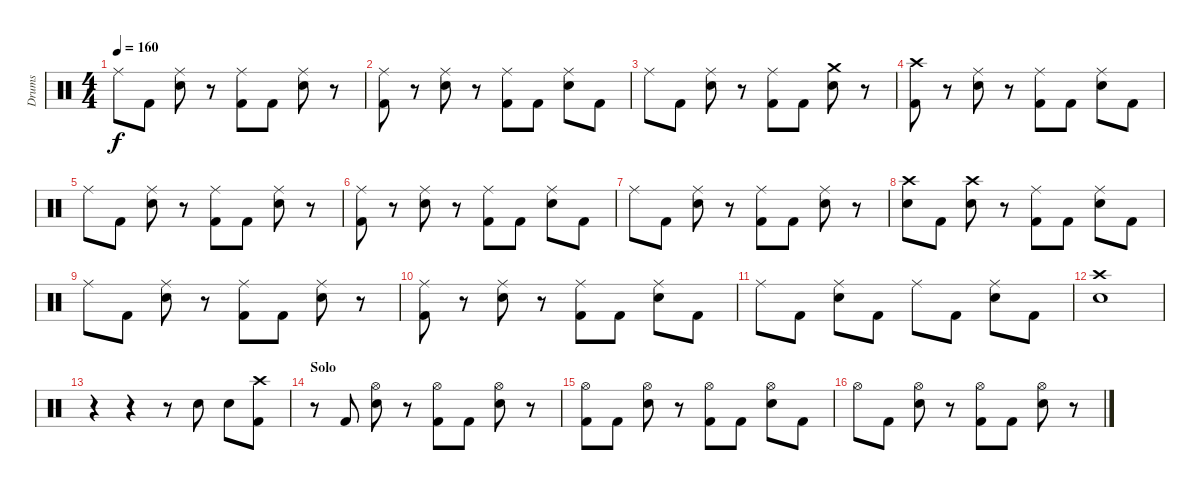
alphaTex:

\track ("Drums" "Drums") {instrument percussion}
\staff {score}
\articulation defaults
\ts (4 4)
\tempo 160
\clef neutral
\ks c "Ride (middle)".8{dy f} "Kick (hit) 2".8
("Ride (middle)" "Snare (hit) 2").8 r.8 ("Ride (middle)" "Kick (hit) 2").8 "Kick (hit) 2".8 ("Ride (middle)" "Snare (hit) 2").8 r.8 |
("Ride (middle)" "Kick (hit) 2").8 r.8 ("Ride (middle)" "Snare (hit) 2").8 r.8 ("Ride (middle)" "Kick (hit) 2").8 "Kick (hit) 2".8 ("Ride (middle)" "Snare (hit) 2").8 "Kick (hit) 2".8 |
"Ride (middle)".8 "Kick (hit) 2".8 ("Ride (middle)" "Snare (hit) 2").8 r.8 ("Ride (middle)" "Kick (hit) 2").8 "Kick (hit) 2".8 ("Crash medium (hit)" "Snare (hit) 2").8 r.8 |
("Crash high (hit)" "Kick (hit) 2").8 r.8 ("Ride (middle)" "Snare (hit) 2").8 r.8 ("Ride (middle)" "Kick (hit) 2").8 "Kick (hit) 2".8 ("Ride (middle)" "Snare (hit) 2").8 "Kick (hit) 2".8 |
"Ride (middle)".8 "Kick (hit) 2".8 ("Ride (middle)" "Snare (hit) 2").8 r.8 ("Ride (middle)" "Kick (hit) 2").8 "Kick (hit) 2".8 ("Ride (middle)" "Snare (hit) 2").8 r.8 |
("Ride (middle)" "Kick (hit) 2").8 r.8 ("Ride (middle)" "Snare (hit) 2").8 r.8 ("Ride (middle)" "Kick (hit) 2").8 "Kick (hit) 2".8 ("Ride (middle)" "Snare (hit) 2").8 "Kick (hit) 2".8 |
"Ride (middle)".8 "Kick (hit) 2".8 ("Ride (middle)" "Snare (hit) 2").8 r.8 ("Ride (middle)" "Kick (hit) 2").8 "Kick (hit) 2".8 ("Ride (middle)" "Snare (hit) 2").8 r.8 |
("Crash high (hit)" "Snare (hit) 2").8 "Kick (hit) 2".8 ("Crash high (hit)" "Snare (hit) 2").8 r.8 ("Ride (middle)" "Kick (hit) 2").8 "Kick (hit) 2".8 ("Ride (middle)" "Snare (hit) 2").8 "Kick (hit) 2".8 |
"Ride (middle)".8 "Kick (hit) 2".8 ("Ride (middle)" "Snare (hit) 2").8 r.8 ("Ride (middle)" "Kick (hit) 2").8 "Kick (hit) 2".8 ("Ride (middle)" "Snare (hit) 2").8 r.8 |
("Ride (middle)" "Kick (hit) 2").8 r.8 ("Ride (middle)" "Snare (hit) 2").8 r.8 ("Ride (middle)" "Kick (hit) 2").8 "Kick (hit) 2".8 ("Ride (middle)" "Snare (hit) 2").8 "Kick (hit) 2".8 |
"Ride (middle)".8 "Kick (hit) 2".8 ("Ride (middle)" "Snare (hit) 2").8 "Kick (hit) 2".8 "Ride (middle)".8 "Kick (hit) 2".8 ("Ride (middle)" "Snare (hit) 2").8 "Kick (hit) 2".8 |
("Crash high (hit)" "Snare (hit) 2").1 |
r.4 r.4 r.8 "Snare (hit) 2".8 "Snare (hit) 2".8 ("Crash high (hit)" "Kick (hit) 2").8 |
\section ("" "Solo")
r.8 "Kick (hit) 2".8 ("Hi-Hat (open)" "Snare (hit) 2").8 r.8 ("Hi-Hat (open)" "Kick (hit) 2").8 "Kick (hit) 2".8 ("Hi-Hat (open)" "Snare (hit) 2").8 r.8 |
("Hi-Hat (open)" "Kick (hit) 2").8 "Kick (hit) 2".8 ("Hi-Hat (open)" "Snare (hit) 2").8 r.8 ("Hi-Hat (open)" "Kick (hit) 2").8 "Kick (hit) 2".8 ("Hi-Hat (open)" "Snare (hit) 2").8 "Kick (hit) 2".8 |
"Hi-Hat (open)".8 "Kick (hit) 2".8 ("Hi-Hat (open)" "Snare (hit) 2").8 r.8 ("Hi-Hat (open)" "Kick (hit) 2").8 "Kick (hit) 2".8 ("Hi-Hat (open)" "Snare (hit) 2").8 r.8
